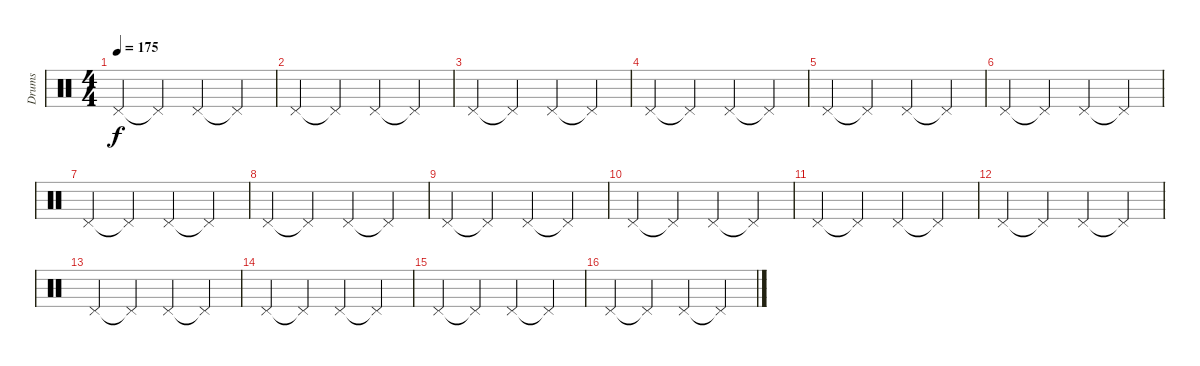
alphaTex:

\track ("Drums" "Drums") {instrument percussion}
\staff {score}
\articulation defaults
\ts (4 4)
\tempo 175
\clef neutral
\ks c "Pedal Hi-Hat (hit)".4{dy f} "Pedal Hi-Hat (hit)"{t}.4 "Pedal Hi-Hat (hit)".4 "Pedal Hi-Hat (hit)"{t}.4
|
"Pedal Hi-Hat (hit)".4 "Pedal Hi-Hat (hit)"{t}.4 "Pedal Hi-Hat (hit)".4 "Pedal Hi-Hat (hit)"{t}.4 |
"Pedal Hi-Hat (hit)".4 "Pedal Hi-Hat (hit)"{t}.4 "Pedal Hi-Hat (hit)".4 "Pedal Hi-Hat (hit)"{t}.4 |
"Pedal Hi-Hat (hit)".4 "Pedal Hi-Hat (hit)"{t}.4 "Pedal Hi-Hat (hit)".4 "Pedal Hi-Hat (hit)"{t}.4 |
"Pedal Hi-Hat (hit)".4 "Pedal Hi-Hat (hit)"{t}.4 "Pedal Hi-Hat (hit)".4 "Pedal Hi-Hat (hit)"{t}.4 |
"Pedal Hi-Hat (hit)".4 "Pedal Hi-Hat (hit)"{t}.4 "Pedal Hi-Hat (hit)".4 "Pedal Hi-Hat (hit)"{t}.4 |
"Pedal Hi-Hat (hit)".4 "Pedal Hi-Hat (hit)"{t}.4 "Pedal Hi-Hat (hit)".4 "Pedal Hi-Hat (hit)"{t}.4 |
"Pedal Hi-Hat (hit)".4 "Pedal Hi-Hat (hit)"{t}.4 "Pedal Hi-Hat (hit)".4 "Pedal Hi-Hat (hit)"{t}.4 |
"Pedal Hi-Hat (hit)".4 "Pedal Hi-Hat (hit)"{t}.4 "Pedal Hi-Hat (hit)".4 "Pedal Hi-Hat (hit)"{t}.4 |
"Pedal Hi-Hat (hit)".4 "Pedal Hi-Hat (hit)"{t}.4 "Pedal Hi-Hat (hit)".4 "Pedal Hi-Hat (hit)"{t}.4 |
"Pedal Hi-Hat (hit)".4 "Pedal Hi-Hat (hit)"{t}.4 "Pedal Hi-Hat (hit)".4 "Pedal Hi-Hat (hit)"{t}.4 |
"Pedal Hi-Hat (hit)".4 "Pedal Hi-Hat (hit)"{t}.4 "Pedal Hi-Hat (hit)".4 "Pedal Hi-Hat (hit)"{t}.4 |
"Pedal Hi-Hat (hit)".4 "Pedal Hi-Hat (hit)"{t}.4 "Pedal Hi-Hat (hit)".4 "Pedal Hi-Hat (hit)"{t}.4 |
"Pedal Hi-Hat (hit)".4 "Pedal Hi-Hat (hit)"{t}.4 "Pedal Hi-Hat (hit)".4 "Pedal Hi-Hat (hit)"{t}.4 |
"Pedal Hi-Hat (hit)".4 "Pedal Hi-Hat (hit)"{t}.4 "Pedal Hi-Hat (hit)".4 "Pedal Hi-Hat (hit)"{t}.4 |
"Pedal Hi-Hat (hit)".4 "Pedal Hi-Hat (hit)"{t}.4 "Pedal Hi-Hat (hit)".4 "Pedal Hi-Hat (hit)"{t}.4
